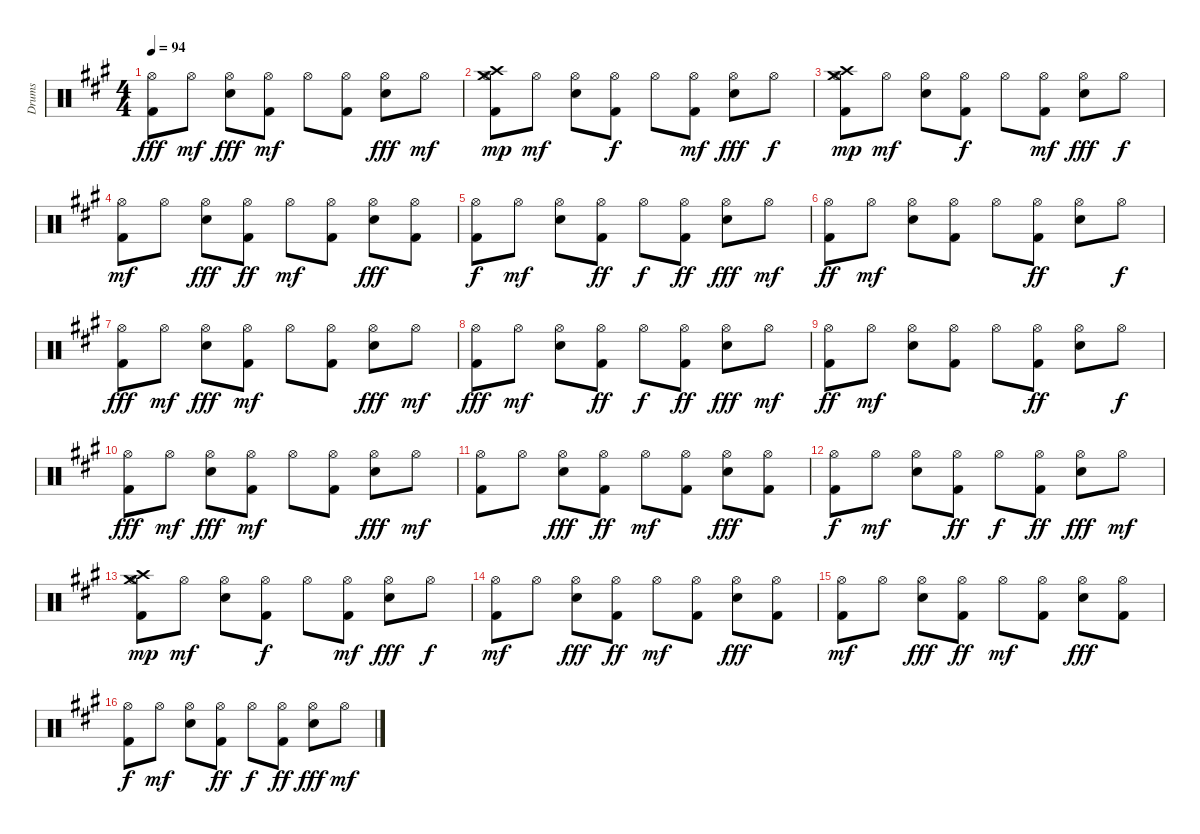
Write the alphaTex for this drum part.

\track ("Drums" "Drums") {instrument percussion}
\staff {score}
\articulation defaults
\ts (4 4)
\tempo 94
\clef neutral
\ks a
("Kick (hit) 2" "Hi-Hat (open)").8{dy fff} "Hi-Hat (open)".8{dy mf} ("Electric Snare (hit)" "Hi-Hat (open)").8{dy fff} ("Kick (hit) 2" "Hi-Hat (open)").8{dy mf} "Hi-Hat (open)".8 ("Kick (hit) 2" "Hi-Hat (open)").8 ("Electric Snare (hit)" "Hi-Hat (open)").8{dy fff} "Hi-Hat (open)".8{dy mf} |
("Kick (hit) 2" "Hi-Hat (open)" "Crash high (hit)" "Crash medium (hit)").8{dy mp} "Hi-Hat (open)".8{dy mf} ("Electric Snare (hit)" "Hi-Hat (open)").8 ("Kick (hit) 2" "Hi-Hat (open)").8{dy f} "Hi-Hat (open)".8 ("Kick (hit) 2" "Hi-Hat (open)").8{dy mf} ("Electric Snare (hit)" "Hi-Hat (open)").8{dy fff} "Hi-Hat (open)".8{dy f} |
("Kick (hit) 2" "Hi-Hat (open)" "Crash high (hit)" "Crash medium (hit)").8{dy mp} "Hi-Hat (open)".8{dy mf} ("Electric Snare (hit)" "Hi-Hat (open)").8 ("Kick (hit) 2" "Hi-Hat (open)").8{dy f} "Hi-Hat (open)".8 ("Kick (hit) 2" "Hi-Hat (open)").8{dy mf} ("Electric Snare (hit)" "Hi-Hat (open)").8{dy fff} "Hi-Hat (open)".8{dy f} |
("Kick (hit) 2" "Hi-Hat (open)").8{dy mf} "Hi-Hat (open)".8 ("Electric Snare (hit)" "Hi-Hat (open)").8{dy fff} ("Kick (hit) 2" "Hi-Hat (open)").8{dy ff} "Hi-Hat (open)".8{dy mf} ("Kick (hit) 2" "Hi-Hat (open)").8 ("Electric Snare (hit)" "Hi-Hat (open)").8{dy fff} ("Kick (hit) 2" "Hi-Hat (open)").8 |
("Hi-Hat (open)" "Kick (hit) 2").8{dy f} "Hi-Hat (open)".8{dy mf} ("Electric Snare (hit)" "Hi-Hat (open)").8 ("Kick (hit) 2" "Hi-Hat (open)").8{dy ff} "Hi-Hat (open)".8{dy f} ("Kick (hit) 2" "Hi-Hat (open)").8{dy ff} ("Electric Snare (hit)" "Hi-Hat (open)").8{dy fff} "Hi-Hat (open)".8{dy mf} |
("Kick (hit) 2" "Hi-Hat (open)").8{dy ff} "Hi-Hat (open)".8{dy mf} ("Electric Snare (hit)" "Hi-Hat (open)").8 ("Kick (hit) 2" "Hi-Hat (open)").8 "Hi-Hat (open)".8 ("Kick (hit) 2" "Hi-Hat (open)").8{dy ff} ("Electric Snare (hit)" "Hi-Hat (open)").8 "Hi-Hat (open)".8{dy f} |
("Kick (hit) 2" "Hi-Hat (open)").8{dy fff} "Hi-Hat (open)".8{dy mf} ("Electric Snare (hit)" "Hi-Hat (open)").8{dy fff} ("Kick (hit) 2" "Hi-Hat (open)").8{dy mf} "Hi-Hat (open)".8 ("Kick (hit) 2" "Hi-Hat (open)").8 ("Electric Snare (hit)" "Hi-Hat (open)").8{dy fff} "Hi-Hat (open)".8{dy mf} |
("Kick (hit) 2" "Hi-Hat (open)").8{dy fff} "Hi-Hat (open)".8{dy mf} ("Electric Snare (hit)" "Hi-Hat (open)").8 ("Kick (hit) 2" "Hi-Hat (open)").8{dy ff} "Hi-Hat (open)".8{dy f} ("Kick (hit) 2" "Hi-Hat (open)").8{dy ff} ("Electric Snare (hit)" "Hi-Hat (open)").8{dy fff} "Hi-Hat (open)".8{dy mf} |
("Kick (hit) 2" "Hi-Hat (open)").8{dy ff} "Hi-Hat (open)".8{dy mf} ("Electric Snare (hit)" "Hi-Hat (open)").8 ("Kick (hit) 2" "Hi-Hat (open)").8 "Hi-Hat (open)".8 ("Kick (hit) 2" "Hi-Hat (open)").8{dy ff} ("Electric Snare (hit)" "Hi-Hat (open)").8 "Hi-Hat (open)".8{dy f} |
("Kick (hit) 2" "Hi-Hat (open)").8{dy fff} "Hi-Hat (open)".8{dy mf} ("Electric Snare (hit)" "Hi-Hat (open)").8{dy fff} ("Kick (hit) 2" "Hi-Hat (open)").8{dy mf} "Hi-Hat (open)".8 ("Kick (hit) 2" "Hi-Hat (open)").8 ("Electric Snare (hit)" "Hi-Hat (open)").8{dy fff} "Hi-Hat (open)".8{dy mf} |
("Kick (hit) 2" "Hi-Hat (open)").8 "Hi-Hat (open)".8 ("Electric Snare (hit)" "Hi-Hat (open)").8{dy fff} ("Kick (hit) 2" "Hi-Hat (open)").8{dy ff} "Hi-Hat (open)".8{dy mf} ("Kick (hit) 2" "Hi-Hat (open)").8 ("Electric Snare (hit)" "Hi-Hat (open)").8{dy fff} ("Kick (hit) 2" "Hi-Hat (open)").8 |
("Hi-Hat (open)" "Kick (hit) 2").8{dy f} "Hi-Hat (open)".8{dy mf} ("Electric Snare (hit)" "Hi-Hat (open)").8 ("Kick (hit) 2" "Hi-Hat (open)").8{dy ff} "Hi-Hat (open)".8{dy f} ("Kick (hit) 2" "Hi-Hat (open)").8{dy ff} ("Electric Snare (hit)" "Hi-Hat (open)").8{dy fff} "Hi-Hat (open)".8{dy mf} |
("Kick (hit) 2" "Hi-Hat (open)" "Crash high (hit)" "Crash medium (hit)").8{dy mp} "Hi-Hat (open)".8{dy mf} ("Electric Snare (hit)" "Hi-Hat (open)").8 ("Kick (hit) 2" "Hi-Hat (open)").8{dy f} "Hi-Hat (open)".8 ("Kick (hit) 2" "Hi-Hat (open)").8{dy mf} ("Electric Snare (hit)" "Hi-Hat (open)").8{dy fff} "Hi-Hat (open)".8{dy f} |
("Kick (hit) 2" "Hi-Hat (open)").8{dy mf} "Hi-Hat (open)".8 ("Electric Snare (hit)" "Hi-Hat (open)").8{dy fff} ("Kick (hit) 2" "Hi-Hat (open)").8{dy ff} "Hi-Hat (open)".8{dy mf} ("Kick (hit) 2" "Hi-Hat (open)").8 ("Electric Snare (hit)" "Hi-Hat (open)").8{dy fff} ("Kick (hit) 2" "Hi-Hat (open)").8 |
("Kick (hit) 2" "Hi-Hat (open)").8{dy mf} "Hi-Hat (open)".8 ("Electric Snare (hit)" "Hi-Hat (open)").8{dy fff} ("Kick (hit) 2" "Hi-Hat (open)").8{dy ff} "Hi-Hat (open)".8{dy mf} ("Kick (hit) 2" "Hi-Hat (open)").8 ("Electric Snare (hit)" "Hi-Hat (open)").8{dy fff} ("Kick (hit) 2" "Hi-Hat (open)").8 |
("Hi-Hat (open)" "Kick (hit) 2").8{dy f} "Hi-Hat (open)".8{dy mf} ("Electric Snare (hit)" "Hi-Hat (open)").8 ("Kick (hit) 2" "Hi-Hat (open)").8{dy ff} "Hi-Hat (open)".8{dy f} ("Kick (hit) 2" "Hi-Hat (open)").8{dy ff} ("Electric Snare (hit)" "Hi-Hat (open)").8{dy fff} "Hi-Hat (open)".8{dy mf}
